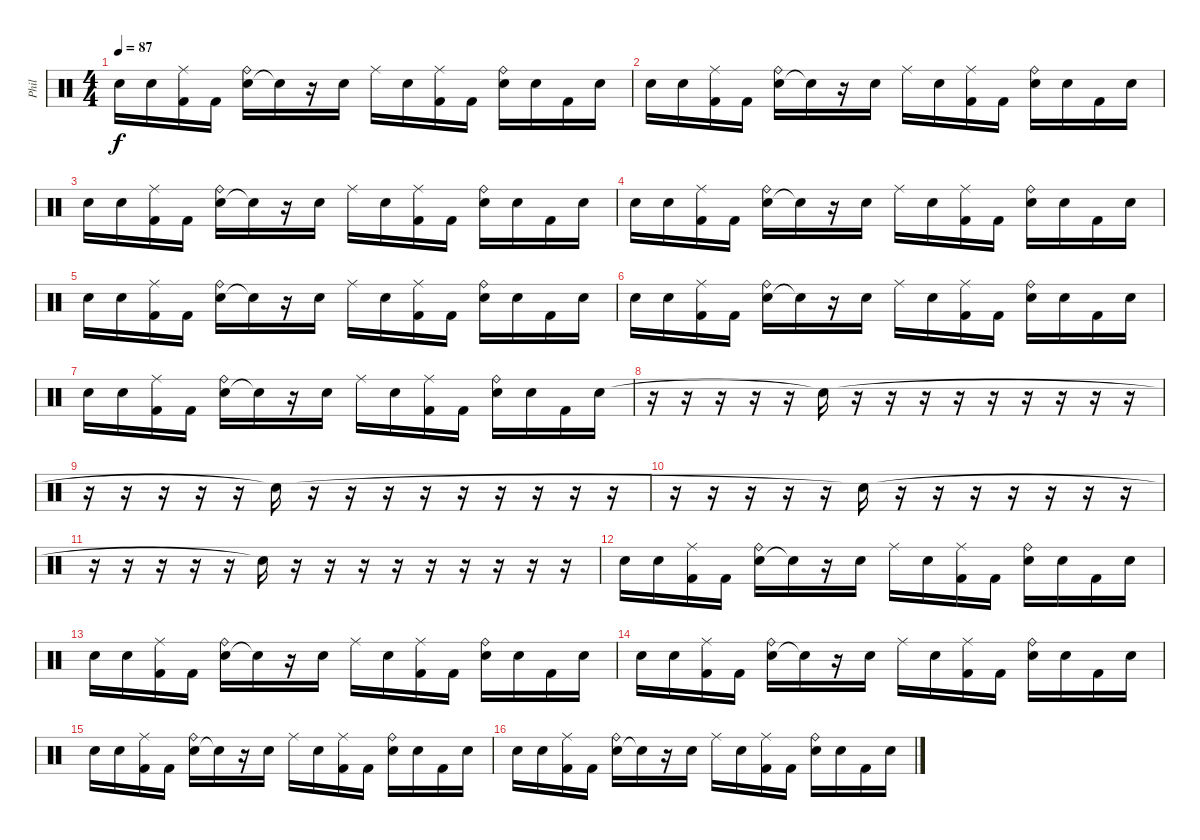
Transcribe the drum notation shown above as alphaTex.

\track ("Phil" "Phil") {instrument percussion}
\staff {score}
\articulation defaults
\ts (4 4)
\tempo 87
\clef neutral
\ks c "Snare (hit) 2".16{dy f} "Snare (hit) 2".16
("Ride (middle)" "Kick (hit) 2").16 "Kick (hit) 2".16 ("Snare (hit) 2" "Ride (bell)").16 "Snare (hit)"{t}.16 r.16 "Snare (hit) 2".16 "Ride (middle)".16 "Snare (hit) 2".16 ("Ride (middle)" "Kick (hit) 2").16 "Kick (hit) 2".16 ("Snare (hit) 2" "Ride (bell)").16 "Snare (hit) 2".16 "Kick (hit) 2".16 "Snare (hit) 2".16 |
"Snare (hit) 2".16 "Snare (hit) 2".16 ("Ride (middle)" "Kick (hit) 2").16 "Kick (hit) 2".16 ("Snare (hit) 2" "Ride (bell)").16 "Snare (hit)"{t}.16 r.16 "Snare (hit) 2".16 "Ride (middle)".16 "Snare (hit) 2".16 ("Ride (middle)" "Kick (hit) 2").16 "Kick (hit) 2".16 ("Snare (hit) 2" "Ride (bell)").16 "Snare (hit) 2".16 "Kick (hit) 2".16 "Snare (hit) 2".16 |
"Snare (hit) 2".16 "Snare (hit) 2".16 ("Ride (middle)" "Kick (hit) 2").16 "Kick (hit) 2".16 ("Snare (hit) 2" "Ride (bell)").16 "Snare (hit)"{t}.16 r.16 "Snare (hit) 2".16 "Ride (middle)".16 "Snare (hit) 2".16 ("Ride (middle)" "Kick (hit) 2").16 "Kick (hit) 2".16 ("Snare (hit) 2" "Ride (bell)").16 "Snare (hit) 2".16 "Kick (hit) 2".16 "Snare (hit) 2".16 |
"Snare (hit) 2".16 "Snare (hit) 2".16 ("Ride (middle)" "Kick (hit) 2").16 "Kick (hit) 2".16 ("Snare (hit) 2" "Ride (bell)").16 "Snare (hit)"{t}.16 r.16 "Snare (hit) 2".16 "Ride (middle)".16 "Snare (hit) 2".16 ("Ride (middle)" "Kick (hit) 2").16 "Kick (hit) 2".16 ("Snare (hit) 2" "Ride (bell)").16 "Snare (hit) 2".16 "Kick (hit) 2".16 "Snare (hit) 2".16 |
"Snare (hit) 2".16 "Snare (hit) 2".16 ("Ride (middle)" "Kick (hit) 2").16 "Kick (hit) 2".16 ("Snare (hit) 2" "Ride (bell)").16 "Snare (hit)"{t}.16 r.16 "Snare (hit) 2".16 "Ride (middle)".16 "Snare (hit) 2".16 ("Ride (middle)" "Kick (hit) 2").16 "Kick (hit) 2".16 ("Snare (hit) 2" "Ride (bell)").16 "Snare (hit) 2".16 "Kick (hit) 2".16 "Snare (hit) 2".16 |
"Snare (hit) 2".16 "Snare (hit) 2".16 ("Ride (middle)" "Kick (hit) 2").16 "Kick (hit) 2".16 ("Snare (hit) 2" "Ride (bell)").16 "Snare (hit)"{t}.16 r.16 "Snare (hit) 2".16 "Ride (middle)".16 "Snare (hit) 2".16 ("Ride (middle)" "Kick (hit) 2").16 "Kick (hit) 2".16 ("Snare (hit) 2" "Ride (bell)").16 "Snare (hit) 2".16 "Kick (hit) 2".16 "Snare (hit) 2".16 |
"Snare (hit) 2".16 "Snare (hit) 2".16 ("Ride (middle)" "Kick (hit) 2").16 "Kick (hit) 2".16 ("Snare (hit) 2" "Ride (bell)").16 "Snare (hit)"{t}.16 r.16 "Snare (hit) 2".16 "Ride (middle)".16 "Snare (hit) 2".16 ("Ride (middle)" "Kick (hit) 2").16 "Kick (hit) 2".16 ("Snare (hit) 2" "Ride (bell)").16 "Snare (hit) 2".16 "Kick (hit) 2".16 "Snare (hit) 2".16 |
r.16 r.16 r.16 r.16 r.16 "Snare (hit)"{t}.16 r.16 r.16 r.16 r.16 r.16 r.16 r.16 r.16 r.16 |
r.16 r.16 r.16 r.16 r.16 "Snare (hit)"{t}.16 r.16 r.16 r.16 r.16 r.16 r.16 r.16 r.16 r.16 |
r.16 r.16 r.16 r.16 r.16 "Snare (hit)"{t}.16 r.16 r.16 r.16 r.16 r.16 r.16 r.16 |
r.16 r.16 r.16 r.16 r.16 "Snare (hit)"{t}.16 r.16 r.16 r.16 r.16 r.16 r.16 r.16 r.16 r.16 |
"Snare (hit) 2".16 "Snare (hit) 2".16 ("Ride (middle)" "Kick (hit) 2").16 "Kick (hit) 2".16 ("Snare (hit) 2" "Ride (bell)").16 "Snare (hit)"{t}.16 r.16 "Snare (hit) 2".16 "Ride (middle)".16 "Snare (hit) 2".16 ("Ride (middle)" "Kick (hit) 2").16 "Kick (hit) 2".16 ("Snare (hit) 2" "Ride (bell)").16 "Snare (hit) 2".16 "Kick (hit) 2".16 "Snare (hit) 2".16 |
"Snare (hit) 2".16 "Snare (hit) 2".16 ("Ride (middle)" "Kick (hit) 2").16 "Kick (hit) 2".16 ("Snare (hit) 2" "Ride (bell)").16 "Snare (hit)"{t}.16 r.16 "Snare (hit) 2".16 "Ride (middle)".16 "Snare (hit) 2".16 ("Ride (middle)" "Kick (hit) 2").16 "Kick (hit) 2".16 ("Snare (hit) 2" "Ride (bell)").16 "Snare (hit) 2".16 "Kick (hit) 2".16 "Snare (hit) 2".16 |
"Snare (hit) 2".16 "Snare (hit) 2".16 ("Ride (middle)" "Kick (hit) 2").16 "Kick (hit) 2".16 ("Snare (hit) 2" "Ride (bell)").16 "Snare (hit)"{t}.16 r.16 "Snare (hit) 2".16 "Ride (middle)".16 "Snare (hit) 2".16 ("Ride (middle)" "Kick (hit) 2").16 "Kick (hit) 2".16 ("Snare (hit) 2" "Ride (bell)").16 "Snare (hit) 2".16 "Kick (hit) 2".16 "Snare (hit) 2".16 |
"Snare (hit) 2".16 "Snare (hit) 2".16 ("Ride (middle)" "Kick (hit) 2").16 "Kick (hit) 2".16 ("Snare (hit) 2" "Ride (bell)").16 "Snare (hit)"{t}.16 r.16 "Snare (hit) 2".16 "Ride (middle)".16 "Snare (hit) 2".16 ("Ride (middle)" "Kick (hit) 2").16 "Kick (hit) 2".16 ("Snare (hit) 2" "Ride (bell)").16 "Snare (hit) 2".16 "Kick (hit) 2".16 "Snare (hit) 2".16 |
"Snare (hit) 2".16 "Snare (hit) 2".16 ("Ride (middle)" "Kick (hit) 2").16 "Kick (hit) 2".16 ("Snare (hit) 2" "Ride (bell)").16 "Snare (hit)"{t}.16 r.16 "Snare (hit) 2".16 "Ride (middle)".16 "Snare (hit) 2".16 ("Ride (middle)" "Kick (hit) 2").16 "Kick (hit) 2".16 ("Snare (hit) 2" "Ride (bell)").16 "Snare (hit) 2".16 "Kick (hit) 2".16 "Snare (hit) 2".16
